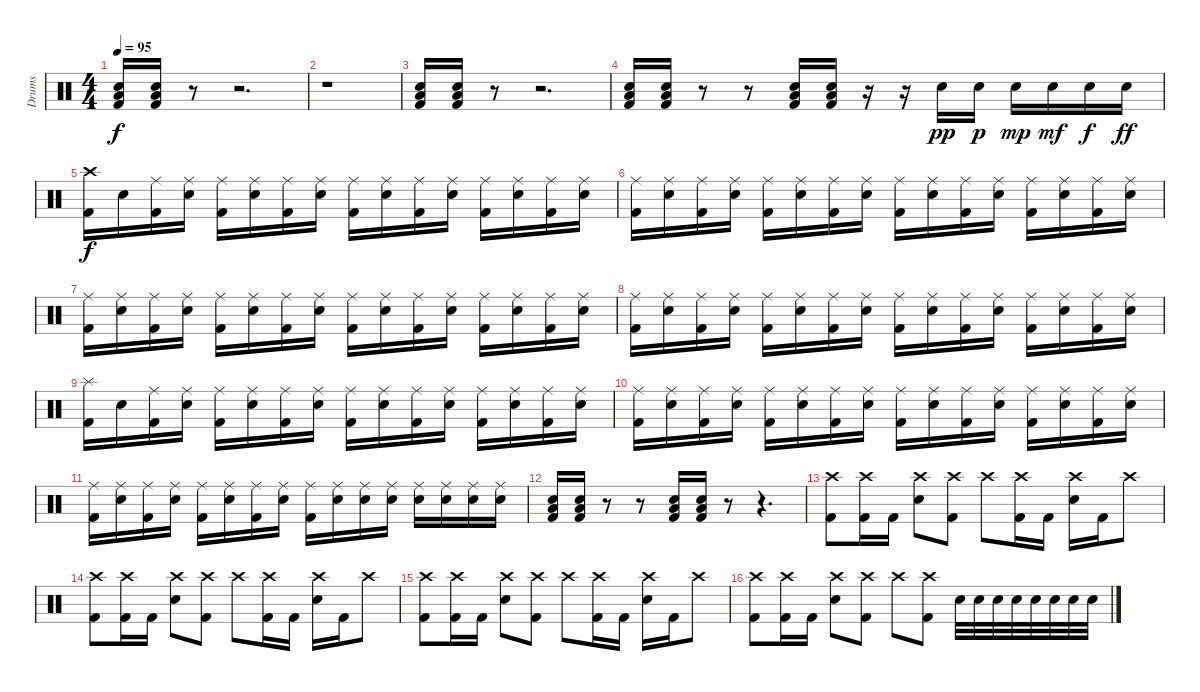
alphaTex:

\track ("Drums" "Drums") {instrument percussion}
\staff {score}
\articulation defaults
\ts (4 4)
\tempo 95
\clef neutral
\ks c
("Low Floor Tom (hit)" "Electric Snare (hit)" "Kick (hit) 2").16{dy f} ("Low Floor Tom (hit)" "Electric Snare (hit)" "Kick (hit) 2").16 r.8 r.2{d} |
r.1 |
("Low Floor Tom (hit)" "Electric Snare (hit)" "Kick (hit) 2").16 ("Low Floor Tom (hit)" "Electric Snare (hit)" "Kick (hit) 2").16 r.8 r.2{d} |
("Low Floor Tom (hit)" "Electric Snare (hit)" "Kick (hit) 2").16 ("Low Floor Tom (hit)" "Electric Snare (hit)" "Kick (hit) 2").16 r.8 r.8 ("Low Floor Tom (hit)" "Electric Snare (hit)" "Kick (hit) 2").16 ("Low Floor Tom (hit)" "Electric Snare (hit)" "Kick (hit) 2").16 r.16 r.16 "Electric Snare (hit)".16{dy pp} "Electric Snare (hit)".16{dy p} "Electric Snare (hit)".16{dy mp} "Electric Snare (hit)".16{dy mf} "Electric Snare (hit)".16{dy f} "Electric Snare (hit)".16{dy ff} |
("Crash high (hit)" "Kick (hit) 2").16{dy f} "Electric Snare (hit)".16 ("Ride (middle)" "Kick (hit) 2").16 ("Ride (middle)" "Electric Snare (hit)").16 ("Ride (middle)" "Kick (hit) 2").16 ("Ride (middle)" "Electric Snare (hit)").16 ("Ride (middle)" "Kick (hit) 2").16 ("Ride (middle)" "Electric Snare (hit)").16 ("Ride (middle)" "Kick (hit) 2").16 ("Ride (middle)" "Electric Snare (hit)").16 ("Ride (middle)" "Kick (hit) 2").16 ("Ride (middle)" "Electric Snare (hit)").16 ("Ride (middle)" "Kick (hit) 2").16 ("Ride (middle)" "Electric Snare (hit)").16 ("Ride (middle)" "Kick (hit) 2").16 ("Ride (middle)" "Electric Snare (hit)").16 |
("Ride (middle)" "Kick (hit) 2").16 ("Ride (middle)" "Electric Snare (hit)").16 ("Ride (middle)" "Kick (hit) 2").16 ("Ride (middle)" "Electric Snare (hit)").16 ("Ride (middle)" "Kick (hit) 2").16 ("Ride (middle)" "Electric Snare (hit)").16 ("Ride (middle)" "Kick (hit) 2").16 ("Ride (middle)" "Electric Snare (hit)").16 ("Ride (middle)" "Kick (hit) 2").16 ("Ride (middle)" "Electric Snare (hit)").16 ("Ride (middle)" "Kick (hit) 2").16 ("Ride (middle)" "Electric Snare (hit)").16 ("Ride (middle)" "Kick (hit) 2").16 ("Ride (middle)" "Electric Snare (hit)").16 ("Ride (middle)" "Kick (hit) 2").16 ("Ride (middle)" "Electric Snare (hit)").16 |
("Ride (middle)" "Kick (hit) 2").16 ("Ride (middle)" "Electric Snare (hit)").16 ("Ride (middle)" "Kick (hit) 2").16 ("Ride (middle)" "Electric Snare (hit)").16 ("Ride (middle)" "Kick (hit) 2").16 ("Ride (middle)" "Electric Snare (hit)").16 ("Ride (middle)" "Kick (hit) 2").16 ("Ride (middle)" "Electric Snare (hit)").16 ("Ride (middle)" "Kick (hit) 2").16 ("Ride (middle)" "Electric Snare (hit)").16 ("Ride (middle)" "Kick (hit) 2").16 ("Ride (middle)" "Electric Snare (hit)").16 ("Ride (middle)" "Kick (hit) 2").16 ("Ride (middle)" "Electric Snare (hit)").16 ("Ride (middle)" "Kick (hit) 2").16 ("Ride (middle)" "Electric Snare (hit)").16 |
("Ride (middle)" "Kick (hit) 2").16 ("Ride (middle)" "Electric Snare (hit)").16 ("Ride (middle)" "Kick (hit) 2").16 ("Ride (middle)" "Electric Snare (hit)").16 ("Ride (middle)" "Kick (hit) 2").16 ("Ride (middle)" "Electric Snare (hit)").16 ("Ride (middle)" "Kick (hit) 2").16 ("Ride (middle)" "Electric Snare (hit)").16 ("Ride (middle)" "Kick (hit) 2").16 ("Ride (middle)" "Electric Snare (hit)").16 ("Ride (middle)" "Kick (hit) 2").16 ("Ride (middle)" "Electric Snare (hit)").16 ("Ride (middle)" "Kick (hit) 2").16 ("Ride (middle)" "Electric Snare (hit)").16 ("Ride (middle)" "Kick (hit) 2").16 ("Ride (middle)" "Electric Snare (hit)").16 |
("Splash (hit)" "Kick (hit) 2").16 "Electric Snare (hit)".16 ("Ride (middle)" "Kick (hit) 2").16 ("Ride (middle)" "Electric Snare (hit)").16 ("Ride (middle)" "Kick (hit) 2").16 ("Ride (middle)" "Electric Snare (hit)").16 ("Ride (middle)" "Kick (hit) 2").16 ("Ride (middle)" "Electric Snare (hit)").16 ("Ride (middle)" "Kick (hit) 2").16 ("Ride (middle)" "Electric Snare (hit)").16 ("Ride (middle)" "Kick (hit) 2").16 ("Ride (middle)" "Electric Snare (hit)").16 ("Ride (middle)" "Kick (hit) 2").16 ("Ride (middle)" "Electric Snare (hit)").16 ("Ride (middle)" "Kick (hit) 2").16 ("Ride (middle)" "Electric Snare (hit)").16 |
("Ride (middle)" "Kick (hit) 2").16 ("Ride (middle)" "Electric Snare (hit)").16 ("Ride (middle)" "Kick (hit) 2").16 ("Ride (middle)" "Electric Snare (hit)").16 ("Ride (middle)" "Kick (hit) 2").16 ("Ride (middle)" "Electric Snare (hit)").16 ("Ride (middle)" "Kick (hit) 2").16 ("Ride (middle)" "Electric Snare (hit)").16 ("Ride (middle)" "Kick (hit) 2").16 ("Ride (middle)" "Electric Snare (hit)").16 ("Ride (middle)" "Kick (hit) 2").16 ("Ride (middle)" "Electric Snare (hit)").16 ("Ride (middle)" "Kick (hit) 2").16 ("Ride (middle)" "Electric Snare (hit)").16 ("Ride (middle)" "Kick (hit) 2").16 ("Ride (middle)" "Electric Snare (hit)").16 |
("Ride (middle)" "Kick (hit) 2").16 ("Ride (middle)" "Electric Snare (hit)").16 ("Ride (middle)" "Kick (hit) 2").16 ("Ride (middle)" "Electric Snare (hit)").16 ("Ride (middle)" "Kick (hit) 2").16 ("Ride (middle)" "Electric Snare (hit)").16 ("Ride (middle)" "Kick (hit) 2").16 ("Ride (middle)" "Electric Snare (hit)").16 ("Ride (middle)" "Kick (hit) 2").16 ("Ride (middle)" "Electric Snare (hit)").16 ("Ride (middle)" "Electric Snare (hit)").16 ("Ride (middle)" "Electric Snare (hit)").16 ("Ride (middle)" "Electric Snare (hit)").16 ("Ride (middle)" "Electric Snare (hit)").16 ("Ride (middle)" "Electric Snare (hit)").16 ("Ride (middle)" "Electric Snare (hit)").16 |
("Low Floor Tom (hit)" "Electric Snare (hit)" "Kick (hit) 2").16 ("Low Floor Tom (hit)" "Electric Snare (hit)" "Kick (hit) 2").16 r.8 r.8 ("Low Floor Tom (hit)" "Electric Snare (hit)" "Kick (hit) 2").16 ("Low Floor Tom (hit)" "Electric Snare (hit)" "Kick (hit) 2").16 r.8 r.4{d} |
("Crash high (hit)" "Kick (hit) 2").8 ("Crash high (hit)" "Kick (hit) 2").16 "Kick (hit) 2".16 ("Crash high (hit)" "Electric Snare (hit)").8 ("Crash high (hit)" "Kick (hit) 2").8 "Crash high (hit)".8 ("Crash high (hit)" "Kick (hit) 2").16 "Kick (hit) 2".16 ("Crash high (hit)" "Electric Snare (hit)").16 "Kick (hit) 2".16 "Crash high (hit)".8 |
("Crash high (hit)" "Kick (hit) 2").8 ("Crash high (hit)" "Kick (hit) 2").16 "Kick (hit) 2".16 ("Crash high (hit)" "Electric Snare (hit)").8 ("Crash high (hit)" "Kick (hit) 2").8 "Crash high (hit)".8 ("Crash high (hit)" "Kick (hit) 2").16 "Kick (hit) 2".16 ("Crash high (hit)" "Electric Snare (hit)").16 "Kick (hit) 2".16 "Crash high (hit)".8 |
("Crash high (hit)" "Kick (hit) 2").8 ("Crash high (hit)" "Kick (hit) 2").16 "Kick (hit) 2".16 ("Crash high (hit)" "Electric Snare (hit)").8 ("Crash high (hit)" "Kick (hit) 2").8 "Crash high (hit)".8 ("Crash high (hit)" "Kick (hit) 2").16 "Kick (hit) 2".16 ("Crash high (hit)" "Electric Snare (hit)").16 "Kick (hit) 2".16 "Crash high (hit)".8 |
("Crash high (hit)" "Kick (hit) 2").8 ("Crash high (hit)" "Kick (hit) 2").16 "Kick (hit) 2".16 ("Crash high (hit)" "Electric Snare (hit)").8 ("Crash high (hit)" "Kick (hit) 2").8 "Crash high (hit)".8 ("Crash high (hit)" "Kick (hit) 2").8 "Electric Snare (hit)".32 "Electric Snare (hit)".32 "Electric Snare (hit)".32 "Electric Snare (hit)".32 "Electric Snare (hit)".32 "Electric Snare (hit)".32 "Electric Snare (hit)".32 "Electric Snare (hit)".32
